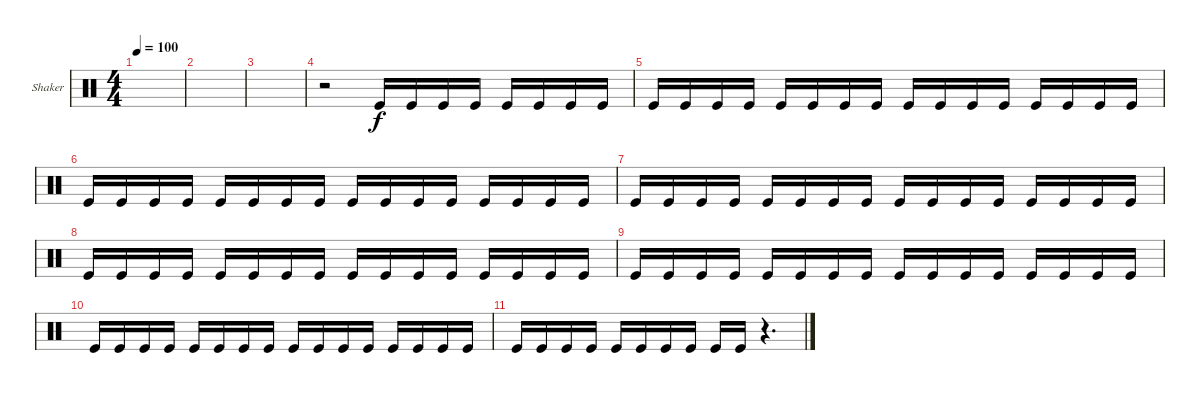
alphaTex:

\bracketExtendMode groupsimilarinstruments
\firstSystemTrackNameOrientation horizontal
\otherSystemsTrackNameOrientation horizontal
\track ("Shaker" "Shaker") {instrument percussion}
\staff {score}
\articulation defaults
\ts (4 4)
\tempo 100
\clef neutral
\scale
0.333333
\ks c
|
\scale
0.333333 |
\scale
0.333333 |
\scale
0.333333 r.2 "Kick (hit)".16 "Kick (hit)".16 "Kick (hit)".16 "Kick (hit)".16 "Kick (hit)".16 "Kick (hit)".16 "Kick (hit)".16 "Kick (hit)".16 |
\scale
0.333333 "Kick (hit)".16 "Kick (hit)".16 "Kick (hit)".16 "Kick (hit)".16 "Kick (hit)".16 "Kick (hit)".16 "Kick (hit)".16 "Kick (hit)".16 "Kick (hit)".16 "Kick (hit)".16 "Kick (hit)".16 "Kick (hit)".16 "Kick (hit)".16 "Kick (hit)".16 "Kick (hit)".16 "Kick (hit)".16 |
\scale
0.333333 "Kick (hit)".16 "Kick (hit)".16 "Kick (hit)".16 "Kick (hit)".16 "Kick (hit)".16 "Kick (hit)".16 "Kick (hit)".16 "Kick (hit)".16 "Kick (hit)".16 "Kick (hit)".16 "Kick (hit)".16 "Kick (hit)".16 "Kick (hit)".16 "Kick (hit)".16 "Kick (hit)".16 "Kick (hit)".16 |
\scale
0.333333 "Kick (hit)".16 "Kick (hit)".16 "Kick (hit)".16 "Kick (hit)".16 "Kick (hit)".16 "Kick (hit)".16 "Kick (hit)".16 "Kick (hit)".16 "Kick (hit)".16 "Kick (hit)".16 "Kick (hit)".16 "Kick (hit)".16 "Kick (hit)".16 "Kick (hit)".16 "Kick (hit)".16 "Kick (hit)".16 |
\scale
0.333333 "Kick (hit)".16 "Kick (hit)".16 "Kick (hit)".16 "Kick (hit)".16 "Kick (hit)".16 "Kick (hit)".16 "Kick (hit)".16 "Kick (hit)".16 "Kick (hit)".16 "Kick (hit)".16 "Kick (hit)".16 "Kick (hit)".16 "Kick (hit)".16 "Kick (hit)".16 "Kick (hit)".16 "Kick (hit)".16 |
\scale
0.333333 "Kick (hit)".16 "Kick (hit)".16 "Kick (hit)".16 "Kick (hit)".16 "Kick (hit)".16 "Kick (hit)".16 "Kick (hit)".16 "Kick (hit)".16 "Kick (hit)".16 "Kick (hit)".16 "Kick (hit)".16 "Kick (hit)".16 "Kick (hit)".16 "Kick (hit)".16 "Kick (hit)".16 "Kick (hit)".16 |
"Kick (hit)".16 "Kick (hit)".16 "Kick (hit)".16 "Kick (hit)".16 "Kick (hit)".16 "Kick (hit)".16 "Kick (hit)".16 "Kick (hit)".16 "Kick (hit)".16 "Kick (hit)".16 "Kick (hit)".16 "Kick (hit)".16 "Kick (hit)".16 "Kick (hit)".16 "Kick (hit)".16 "Kick (hit)".16 |
"Kick (hit)".16 "Kick (hit)".16 "Kick (hit)".16 "Kick (hit)".16 "Kick (hit)".16 "Kick (hit)".16 "Kick (hit)".16 "Kick (hit)".16 "Kick (hit)".16 "Kick (hit)".16 r.4{d}
